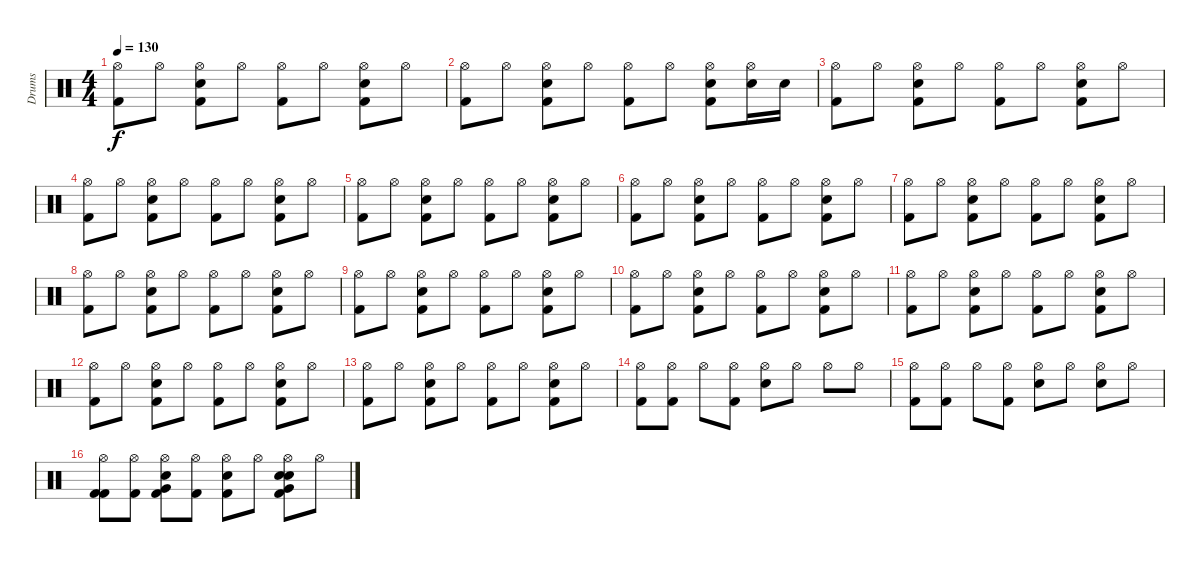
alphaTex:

\track ("Drums" "Drums") {instrument percussion}
\staff {score}
\articulation defaults
\ts (4 4)
\tempo 130
\clef neutral
\ks c
("Kick (hit) 2" "Hi-Hat (open)").8{dy f} "Hi-Hat (open)".8 ("Electric Snare (hit)" "Kick (hit) 2" "Hi-Hat (open)").8 "Hi-Hat (open)".8 ("Kick (hit) 2" "Hi-Hat (open)").8 "Hi-Hat (open)".8 ("Electric Snare (hit)" "Kick (hit) 2" "Hi-Hat (open)").8 "Hi-Hat (open)".8 |
("Kick (hit) 2" "Hi-Hat (open)").8 "Hi-Hat (open)".8 ("Electric Snare (hit)" "Kick (hit) 2" "Hi-Hat (open)").8 "Hi-Hat (open)".8 ("Kick (hit) 2" "Hi-Hat (open)").8 "Hi-Hat (open)".8 ("Electric Snare (hit)" "Kick (hit) 2" "Hi-Hat (open)").8 ("Electric Snare (hit)" "Hi-Hat (open)").16 "Electric Snare (hit)".16 |
("Kick (hit) 2" "Hi-Hat (open)").8 "Hi-Hat (open)".8 ("Electric Snare (hit)" "Kick (hit) 2" "Hi-Hat (open)").8 "Hi-Hat (open)".8 ("Kick (hit) 2" "Hi-Hat (open)").8 "Hi-Hat (open)".8 ("Electric Snare (hit)" "Kick (hit) 2" "Hi-Hat (open)").8 "Hi-Hat (open)".8 |
("Kick (hit) 2" "Hi-Hat (open)").8 "Hi-Hat (open)".8 ("Electric Snare (hit)" "Kick (hit) 2" "Hi-Hat (open)").8 "Hi-Hat (open)".8 ("Kick (hit) 2" "Hi-Hat (open)").8 "Hi-Hat (open)".8 ("Electric Snare (hit)" "Kick (hit) 2" "Hi-Hat (open)").8 "Hi-Hat (open)".8 |
("Kick (hit) 2" "Hi-Hat (open)").8 "Hi-Hat (open)".8 ("Electric Snare (hit)" "Kick (hit) 2" "Hi-Hat (open)").8 "Hi-Hat (open)".8 ("Kick (hit) 2" "Hi-Hat (open)").8 "Hi-Hat (open)".8 ("Electric Snare (hit)" "Kick (hit) 2" "Hi-Hat (open)").8 "Hi-Hat (open)".8 |
("Kick (hit) 2" "Hi-Hat (open)").8 "Hi-Hat (open)".8 ("Electric Snare (hit)" "Kick (hit) 2" "Hi-Hat (open)").8 "Hi-Hat (open)".8 ("Kick (hit) 2" "Hi-Hat (open)").8 "Hi-Hat (open)".8 ("Electric Snare (hit)" "Kick (hit) 2" "Hi-Hat (open)").8 "Hi-Hat (open)".8 |
("Kick (hit) 2" "Hi-Hat (open)").8 "Hi-Hat (open)".8 ("Electric Snare (hit)" "Kick (hit) 2" "Hi-Hat (open)").8 "Hi-Hat (open)".8 ("Kick (hit) 2" "Hi-Hat (open)").8 "Hi-Hat (open)".8 ("Electric Snare (hit)" "Kick (hit) 2" "Hi-Hat (open)").8 "Hi-Hat (open)".8 |
("Kick (hit) 2" "Hi-Hat (open)").8 "Hi-Hat (open)".8 ("Electric Snare (hit)" "Kick (hit) 2" "Hi-Hat (open)").8 "Hi-Hat (open)".8 ("Kick (hit) 2" "Hi-Hat (open)").8 "Hi-Hat (open)".8 ("Electric Snare (hit)" "Kick (hit) 2" "Hi-Hat (open)").8 "Hi-Hat (open)".8 |
("Kick (hit) 2" "Hi-Hat (open)").8 "Hi-Hat (open)".8 ("Electric Snare (hit)" "Kick (hit) 2" "Hi-Hat (open)").8 "Hi-Hat (open)".8 ("Kick (hit) 2" "Hi-Hat (open)").8 "Hi-Hat (open)".8 ("Electric Snare (hit)" "Kick (hit) 2" "Hi-Hat (open)").8 "Hi-Hat (open)".8 |
("Kick (hit) 2" "Hi-Hat (open)").8 "Hi-Hat (open)".8 ("Electric Snare (hit)" "Kick (hit) 2" "Hi-Hat (open)").8 "Hi-Hat (open)".8 ("Kick (hit) 2" "Hi-Hat (open)").8 "Hi-Hat (open)".8 ("Electric Snare (hit)" "Kick (hit) 2" "Hi-Hat (open)").8 "Hi-Hat (open)".8 |
("Kick (hit) 2" "Hi-Hat (open)").8 "Hi-Hat (open)".8 ("Electric Snare (hit)" "Kick (hit) 2" "Hi-Hat (open)").8 "Hi-Hat (open)".8 ("Kick (hit) 2" "Hi-Hat (open)").8 "Hi-Hat (open)".8 ("Electric Snare (hit)" "Kick (hit) 2" "Hi-Hat (open)").8 "Hi-Hat (open)".8 |
("Kick (hit) 2" "Hi-Hat (open)").8 "Hi-Hat (open)".8 ("Electric Snare (hit)" "Kick (hit) 2" "Hi-Hat (open)").8 "Hi-Hat (open)".8 ("Kick (hit) 2" "Hi-Hat (open)").8 "Hi-Hat (open)".8 ("Electric Snare (hit)" "Kick (hit) 2" "Hi-Hat (open)").8 "Hi-Hat (open)".8 |
("Kick (hit) 2" "Hi-Hat (open)").8 "Hi-Hat (open)".8 ("Electric Snare (hit)" "Kick (hit) 2" "Hi-Hat (open)").8 "Hi-Hat (open)".8 ("Kick (hit) 2" "Hi-Hat (open)").8 "Hi-Hat (open)".8 ("Electric Snare (hit)" "Kick (hit) 2" "Hi-Hat (open)").8 "Hi-Hat (open)".8 |
("Kick (hit) 2" "Hi-Hat (open)").8 ("Kick (hit) 2" "Hi-Hat (open)").8 "Hi-Hat (open)".8 ("Kick (hit) 2" "Hi-Hat (open)").8 ("Electric Snare (hit)" "Hi-Hat (open)").8 "Hi-Hat (open)".8 "Hi-Hat (open)".8 "Hi-Hat (open)".8 |
("Kick (hit) 2" "Hi-Hat (open)").8 ("Kick (hit) 2" "Hi-Hat (open)").8 "Hi-Hat (open)".8 ("Kick (hit) 2" "Hi-Hat (open)").8 ("Electric Snare (hit)" "Hi-Hat (open)").8 "Hi-Hat (open)".8 ("Electric Snare (hit)" "Hi-Hat (open)").8 "Hi-Hat (open)".8 |
("Kick (hit) 2" "Kick (hit) 2" "Hi-Hat (open)").8 ("Kick (hit) 2" "Hi-Hat (open)").8 ("Electric Snare (hit)" "Very Low Tom (hit)" "Kick (hit) 2" "Hi-Hat (open)").8 ("Kick (hit) 2" "Hi-Hat (open)").8 ("Kick (hit) 2" "Electric Snare (hit)" "Hi-Hat (open)").8 "Hi-Hat (open)".8 ("Electric Snare (hit)" "Very Low Tom (hit)" "Kick (hit) 2" "Electric Snare (hit)" "Hi-Hat (open)").8 "Hi-Hat (open)".8
